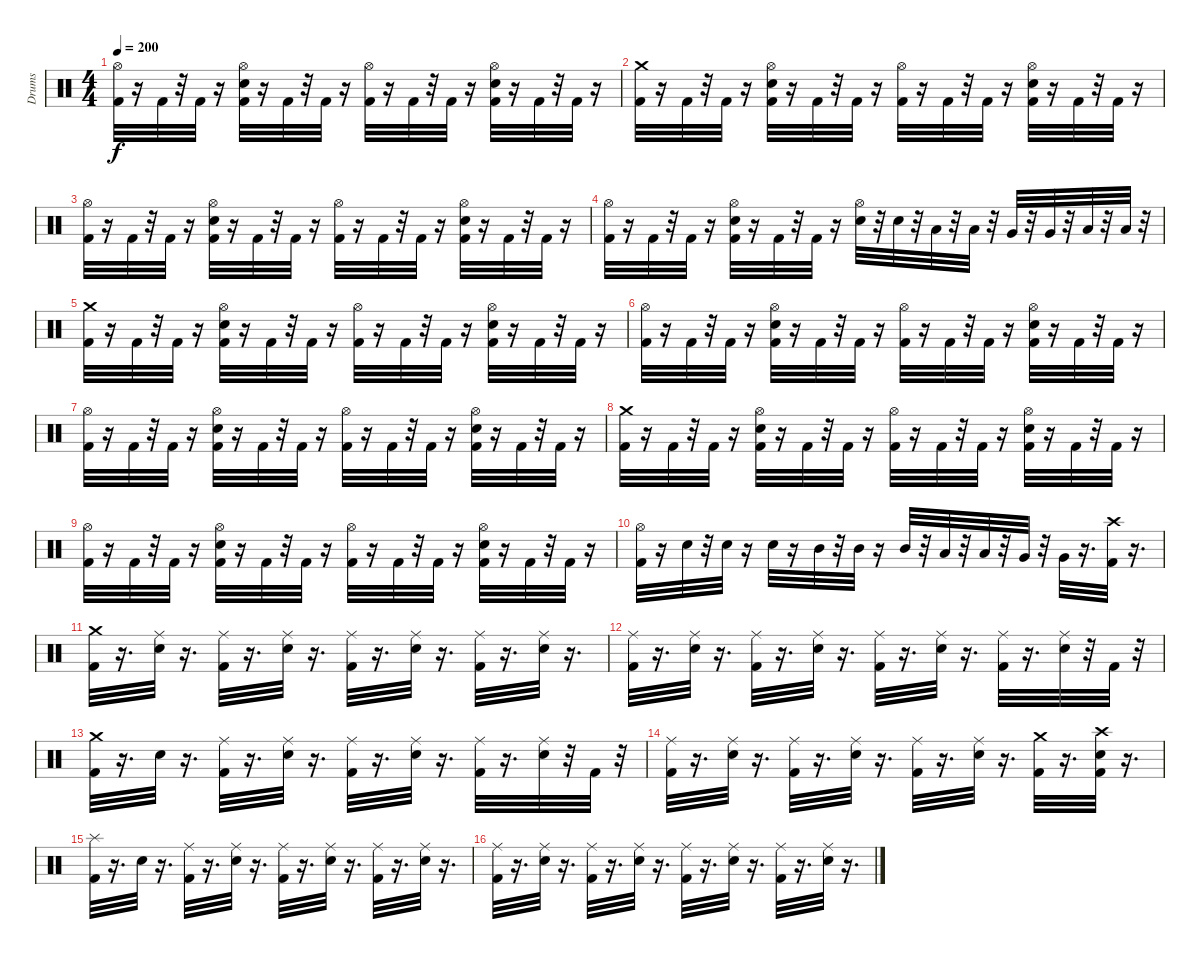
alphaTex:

\track ("Drums" "Drums") {instrument percussion}
\staff {score}
\articulation defaults
\ts (4 4)
\tempo 200
\clef neutral
\ks c
("Hi-Hat (open)" "Kick (hit) 2").32{dy f} r.16 "Kick (hit) 2".32 r.32 "Kick (hit) 2".32 r.16 ("Hi-Hat (open)" "Electric Snare (hit)" "Kick (hit) 2").32 r.16 "Kick (hit) 2".32 r.32 "Kick (hit) 2".32 r.16 ("Hi-Hat (open)" "Kick (hit) 2").32 r.16 "Kick (hit) 2".32 r.32 "Kick (hit) 2".32 r.16 ("Hi-Hat (open)" "Electric Snare (hit)" "Kick (hit) 2").32 r.16 "Kick (hit) 2".32 r.32 "Kick (hit) 2".32 r.16 |
("Crash medium (hit)" "Kick (hit) 2").32 r.16 "Kick (hit) 2".32 r.32 "Kick (hit) 2".32 r.16 ("Hi-Hat (open)" "Electric Snare (hit)" "Kick (hit) 2").32 r.16 "Kick (hit) 2".32 r.32 "Kick (hit) 2".32 r.16 ("Kick (hit) 2" "Hi-Hat (open)").32 r.16 "Kick (hit) 2".32 r.32 "Kick (hit) 2".32 r.16 ("Kick (hit) 2" "Electric Snare (hit)" "Hi-Hat (open)").32 r.16 "Kick (hit) 2".32 r.32 "Kick (hit) 2".32 r.16 |
("Hi-Hat (open)" "Kick (hit) 2").32 r.16 "Kick (hit) 2".32 r.32 "Kick (hit) 2".32 r.16 ("Kick (hit) 2" "Electric Snare (hit)" "Hi-Hat (open)").32 r.16 "Kick (hit) 2".32 r.32 "Kick (hit) 2".32 r.16 ("Kick (hit) 2" "Hi-Hat (open)").32 r.16 "Kick (hit) 2".32 r.32 "Kick (hit) 2".32 r.16 ("Kick (hit) 2" "Electric Snare (hit)" "Hi-Hat (open)").32 r.16 "Kick (hit) 2".32 r.32 "Kick (hit) 2".32 r.16 |
("Kick (hit) 2" "Hi-Hat (open)").32 r.16 "Kick (hit) 2".32 r.32 "Kick (hit) 2".32 r.16 ("Kick (hit) 2" "Electric Snare (hit)" "Hi-Hat (open)").32 r.16 "Kick (hit) 2".32 r.32 "Kick (hit) 2".32 r.16 ("Electric Snare (hit)" "Hi-Hat (open)").32 r.32 "Electric Snare (hit)".32 r.32 "Low Tom (hit)".32 r.32 "Low Tom (hit)".32 r.32 "Very Low Tom (hit)".32 r.32 "Very Low Tom (hit)".32 r.32 "Low Floor Tom (hit)".32 r.32 "Low Floor Tom (hit)".32 r.32 |
("Kick (hit) 2" "Crash medium (hit)").32 r.16 "Kick (hit) 2".32 r.32 "Kick (hit) 2".32 r.16 ("Hi-Hat (open)" "Electric Snare (hit)" "Kick (hit) 2").32 r.16 "Kick (hit) 2".32 r.32 "Kick (hit) 2".32 r.16 ("Hi-Hat (open)" "Kick (hit) 2").32 r.16 "Kick (hit) 2".32 r.32 "Kick (hit) 2".32 r.16 ("Hi-Hat (open)" "Electric Snare (hit)" "Kick (hit) 2").32 r.16 "Kick (hit) 2".32 r.32 "Kick (hit) 2".32 r.16 |
("Hi-Hat (open)" "Kick (hit) 2").32 r.16 "Kick (hit) 2".32 r.32 "Kick (hit) 2".32 r.16 ("Hi-Hat (open)" "Electric Snare (hit)" "Kick (hit) 2").32 r.16 "Kick (hit) 2".32 r.32 "Kick (hit) 2".32 r.16 ("Hi-Hat (open)" "Kick (hit) 2").32 r.16 "Kick (hit) 2".32 r.32 "Kick (hit) 2".32 r.16 ("Hi-Hat (open)" "Electric Snare (hit)" "Kick (hit) 2").32 r.16 "Kick (hit) 2".32 r.32 "Kick (hit) 2".32 r.16 |
("Hi-Hat (open)" "Kick (hit) 2").32 r.16 "Kick (hit) 2".32 r.32 "Kick (hit) 2".32 r.16 ("Hi-Hat (open)" "Electric Snare (hit)" "Kick (hit) 2").32 r.16 "Kick (hit) 2".32 r.32 "Kick (hit) 2".32 r.16 ("Hi-Hat (open)" "Kick (hit) 2").32 r.16 "Kick (hit) 2".32 r.32 "Kick (hit) 2".32 r.16 ("Hi-Hat (open)" "Electric Snare (hit)" "Kick (hit) 2").32 r.16 "Kick (hit) 2".32 r.32 "Kick (hit) 2".32 r.16 |
("Crash medium (hit)" "Kick (hit) 2").32 r.16 "Kick (hit) 2".32 r.32 "Kick (hit) 2".32 r.16 ("Hi-Hat (open)" "Electric Snare (hit)" "Kick (hit) 2").32 r.16 "Kick (hit) 2".32 r.32 "Kick (hit) 2".32 r.16 ("Hi-Hat (open)" "Kick (hit) 2").32 r.16 "Kick (hit) 2".32 r.32 "Kick (hit) 2".32 r.16 ("Hi-Hat (open)" "Electric Snare (hit)" "Kick (hit) 2").32 r.16 "Kick (hit) 2".32 r.32 "Kick (hit) 2".32 r.16 |
("Hi-Hat (open)" "Kick (hit) 2").32 r.16 "Kick (hit) 2".32 r.32 "Kick (hit) 2".32 r.16 ("Hi-Hat (open)" "Electric Snare (hit)" "Kick (hit) 2").32 r.16 "Kick (hit) 2".32 r.32 "Kick (hit) 2".32 r.16 ("Hi-Hat (open)" "Kick (hit) 2").32 r.16 "Kick (hit) 2".32 r.32 "Kick (hit) 2".32 r.16 ("Hi-Hat (open)" "Electric Snare (hit)" "Kick (hit) 2").32 r.16 "Kick (hit) 2".32 r.32 "Kick (hit) 2".32 r.16 |
("Hi-Hat (open)" "Kick (hit) 2").32 r.16 "Electric Snare (hit)".32 r.32 "Electric Snare (hit)".32 r.16 "Electric Snare (hit)".32 r.16 "Mid Tom (hit)".32 r.32 "Mid Tom (hit)".32 r.16 "Mid Tom (hit)".32 r.32 "Low Tom (hit)".32 r.32 "Low Tom (hit)".32 r.32 "Very Low Tom (hit)".32 r.32 "Very Low Tom (hit)".32 r.16{d} ("Kick (hit) 2" "Crash high (hit)").32 r.16{d} |
("Kick (hit) 2" "Crash medium (hit)").32 r.16{d} ("Ride (middle)" "Electric Snare (hit)").32 r.16{d} ("Ride (middle)" "Kick (hit) 2").32 r.16{d} ("Ride (middle)" "Electric Snare (hit)").32 r.16{d} ("Ride (middle)" "Kick (hit) 2").32 r.16{d} ("Ride (middle)" "Electric Snare (hit)").32 r.16{d} ("Ride (middle)" "Kick (hit) 2").32 r.16{d} ("Ride (middle)" "Electric Snare (hit)").32 r.16{d} |
("Ride (middle)" "Kick (hit) 2").32 r.16{d} ("Ride (middle)" "Electric Snare (hit)").32 r.16{d} ("Ride (middle)" "Kick (hit) 2").32 r.16{d} ("Electric Snare (hit)" "Ride (middle)").32 r.16{d} ("Ride (middle)" "Kick (hit) 2").32 r.16{d} ("Ride (middle)" "Electric Snare (hit)").32 r.16{d} ("Ride (middle)" "Kick (hit) 2").32 r.16{d} ("Ride (middle)" "Electric Snare (hit)").32 r.32 "Kick (hit) 2".32 r.32 |
("Crash medium (hit)" "Kick (hit) 2").32 r.16{d} "Electric Snare (hit)".32 r.16{d} ("Ride (middle)" "Kick (hit) 2").32 r.16{d} ("Ride (middle)" "Electric Snare (hit)").32 r.16{d} ("Ride (middle)" "Kick (hit) 2").32 r.16{d} ("Ride (middle)" "Electric Snare (hit)").32 r.16{d} ("Ride (middle)" "Kick (hit) 2").32 r.16{d} ("Ride (middle)" "Electric Snare (hit)").32 r.32 "Kick (hit) 2".32 r.32 |
("Ride (middle)" "Kick (hit) 2").32 r.16{d} ("Ride (middle)" "Electric Snare (hit)").32 r.16{d} ("Ride (middle)" "Kick (hit) 2").32 r.16{d} ("Ride (middle)" "Electric Snare (hit)").32 r.16{d} ("Ride (middle)" "Kick (hit) 2").32 r.16{d} ("Electric Snare (hit)" "Ride (middle)").32 r.16{d} ("Kick (hit) 2" "Crash medium (hit)").32 r.16{d} ("Kick (hit) 2" "Electric Snare (hit)" "Crash high (hit)").32 r.16{d} |
("Splash (hit)" "Kick (hit) 2").32 r.16{d} "Electric Snare (hit)".32 r.16{d} ("Kick (hit) 2" "Ride (middle)").32 r.16{d} ("Electric Snare (hit)" "Ride (middle)").32 r.16{d} ("Kick (hit) 2" "Ride (middle)").32 r.16{d} ("Electric Snare (hit)" "Ride (middle)").32 r.16{d} ("Kick (hit) 2" "Ride (middle)").32 r.16{d} ("Electric Snare (hit)" "Ride (middle)").32 r.16{d} |
("Kick (hit) 2" "Ride (middle)").32 r.16{d} ("Electric Snare (hit)" "Ride (middle)").32 r.16{d} ("Kick (hit) 2" "Ride (middle)").32 r.16{d} ("Electric Snare (hit)" "Ride (middle)").32 r.16{d} ("Kick (hit) 2" "Ride (middle)").32 r.16{d} ("Electric Snare (hit)" "Ride (middle)").32 r.16{d} ("Kick (hit) 2" "Ride (middle)").32 r.16{d} ("Electric Snare (hit)" "Ride (middle)").32 r.16{d}
